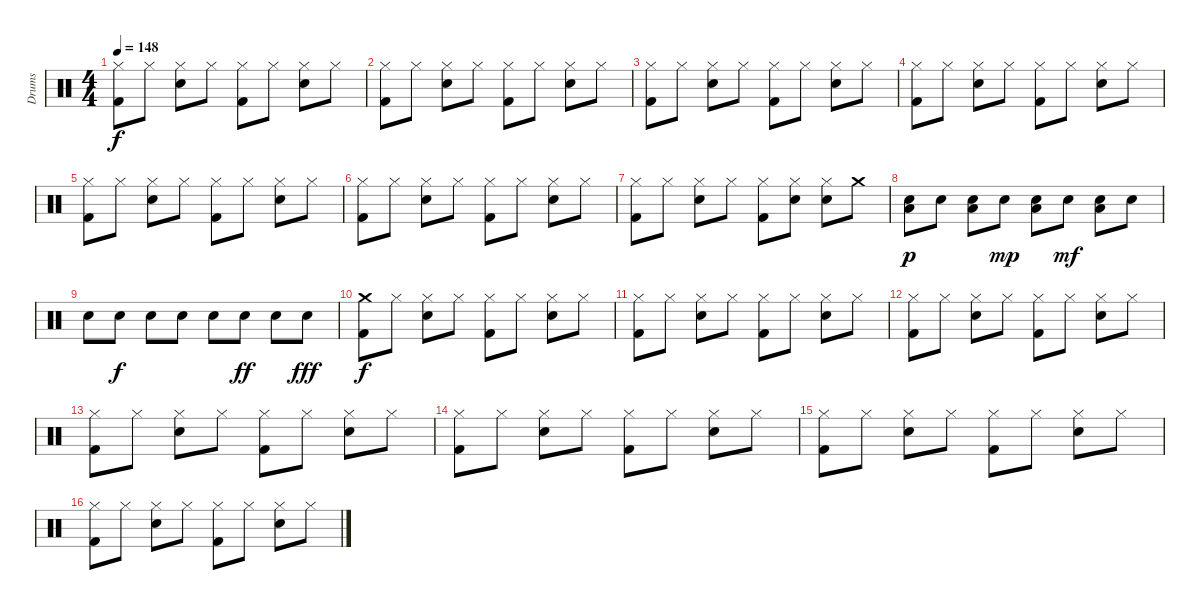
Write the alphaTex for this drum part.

\track ("Drums" "Drums") {instrument percussion}
\staff {score}
\articulation defaults
\ts (4 4)
\tempo 148
\clef neutral
\ks c
("Kick (hit) 2" "Hi-Hat (closed)").8{dy f} "Hi-Hat (closed)".8 ("Snare (hit) 2" "Hi-Hat (closed)").8 "Hi-Hat (closed)".8 ("Kick (hit) 2" "Hi-Hat (closed)").8 "Hi-Hat (closed)".8 ("Snare (hit) 2" "Hi-Hat (closed)").8 "Hi-Hat (closed)".8 |
("Kick (hit) 2" "Hi-Hat (closed)").8 "Hi-Hat (closed)".8 ("Snare (hit) 2" "Hi-Hat (closed)").8 "Hi-Hat (closed)".8 ("Kick (hit) 2" "Hi-Hat (closed)").8 "Hi-Hat (closed)".8 ("Snare (hit) 2" "Hi-Hat (closed)").8 "Hi-Hat (closed)".8 |
("Kick (hit) 2" "Hi-Hat (closed)").8 "Hi-Hat (closed)".8 ("Snare (hit) 2" "Hi-Hat (closed)").8 "Hi-Hat (closed)".8 ("Kick (hit) 2" "Hi-Hat (closed)").8 "Hi-Hat (closed)".8 ("Snare (hit) 2" "Hi-Hat (closed)").8 "Hi-Hat (closed)".8 |
("Kick (hit) 2" "Hi-Hat (closed)").8 "Hi-Hat (closed)".8 ("Snare (hit) 2" "Hi-Hat (closed)").8 "Hi-Hat (closed)".8 ("Kick (hit) 2" "Hi-Hat (closed)").8 "Hi-Hat (closed)".8 ("Snare (hit) 2" "Hi-Hat (closed)").8 "Hi-Hat (closed)".8 |
("Kick (hit) 2" "Hi-Hat (closed)").8 "Hi-Hat (closed)".8 ("Snare (hit) 2" "Hi-Hat (closed)").8 "Hi-Hat (closed)".8 ("Kick (hit) 2" "Hi-Hat (closed)").8 "Hi-Hat (closed)".8 ("Snare (hit) 2" "Hi-Hat (closed)").8 "Hi-Hat (closed)".8 |
("Kick (hit) 2" "Hi-Hat (closed)").8 "Hi-Hat (closed)".8 ("Snare (hit) 2" "Hi-Hat (closed)").8 "Hi-Hat (closed)".8 ("Kick (hit) 2" "Hi-Hat (closed)").8 "Hi-Hat (closed)".8 ("Snare (hit) 2" "Hi-Hat (closed)").8 "Hi-Hat (closed)".8 |
("Kick (hit) 2" "Hi-Hat (closed)").8 "Hi-Hat (closed)".8 ("Snare (hit) 2" "Hi-Hat (closed)").8 "Hi-Hat (closed)".8 ("Kick (hit) 2" "Hi-Hat (closed)").8 ("Snare (hit) 2" "Hi-Hat (closed)").8 ("Snare (hit) 2" "Hi-Hat (closed)").8 "Crash medium (hit)".8 |
("Snare (hit) 2" "Low Tom (hit)").8{dy p} "Snare (hit) 2".8 ("Snare (hit) 2" "Low Tom (hit)").8 "Snare (hit) 2".8{dy mp} ("Snare (hit) 2" "Low Tom (hit)").8 "Snare (hit) 2".8{dy mf} ("Snare (hit) 2" "Low Tom (hit)").8 "Snare (hit) 2".8 |
"Snare (hit) 2".8 "Snare (hit) 2".8{dy f} "Snare (hit) 2".8 "Snare (hit) 2".8 "Snare (hit) 2".8 "Snare (hit) 2".8{dy ff} "Snare (hit) 2".8 "Snare (hit) 2".8{dy fff} |
("Kick (hit) 2" "Crash medium (hit)").8{dy f} "Hi-Hat (closed)".8 ("Snare (hit) 2" "Hi-Hat (closed)").8 "Hi-Hat (closed)".8 ("Kick (hit) 2" "Hi-Hat (closed)").8 "Hi-Hat (closed)".8 ("Snare (hit) 2" "Hi-Hat (closed)").8 "Hi-Hat (closed)".8 |
("Kick (hit) 2" "Hi-Hat (closed)").8 "Hi-Hat (closed)".8 ("Snare (hit) 2" "Hi-Hat (closed)").8 "Hi-Hat (closed)".8 ("Kick (hit) 2" "Hi-Hat (closed)").8 "Hi-Hat (closed)".8 ("Snare (hit) 2" "Hi-Hat (closed)").8 "Hi-Hat (closed)".8 |
("Kick (hit) 2" "Hi-Hat (closed)").8 "Hi-Hat (closed)".8 ("Snare (hit) 2" "Hi-Hat (closed)").8 "Hi-Hat (closed)".8 ("Kick (hit) 2" "Hi-Hat (closed)").8 "Hi-Hat (closed)".8 ("Snare (hit) 2" "Hi-Hat (closed)").8 "Hi-Hat (closed)".8 |
("Kick (hit) 2" "Hi-Hat (closed)").8 "Hi-Hat (closed)".8 ("Snare (hit) 2" "Hi-Hat (closed)").8 "Hi-Hat (closed)".8 ("Kick (hit) 2" "Hi-Hat (closed)").8 "Hi-Hat (closed)".8 ("Snare (hit) 2" "Hi-Hat (closed)").8 "Hi-Hat (closed)".8 |
("Kick (hit) 2" "Hi-Hat (closed)").8 "Hi-Hat (closed)".8 ("Snare (hit) 2" "Hi-Hat (closed)").8 "Hi-Hat (closed)".8 ("Kick (hit) 2" "Hi-Hat (closed)").8 "Hi-Hat (closed)".8 ("Snare (hit) 2" "Hi-Hat (closed)").8 "Hi-Hat (closed)".8 |
("Kick (hit) 2" "Hi-Hat (closed)").8 "Hi-Hat (closed)".8 ("Snare (hit) 2" "Hi-Hat (closed)").8 "Hi-Hat (closed)".8 ("Kick (hit) 2" "Hi-Hat (closed)").8 "Hi-Hat (closed)".8 ("Snare (hit) 2" "Hi-Hat (closed)").8 "Hi-Hat (closed)".8 |
("Kick (hit) 2" "Hi-Hat (closed)").8 "Hi-Hat (closed)".8 ("Snare (hit) 2" "Hi-Hat (closed)").8 "Hi-Hat (closed)".8 ("Kick (hit) 2" "Hi-Hat (closed)").8 "Hi-Hat (closed)".8 ("Snare (hit) 2" "Hi-Hat (closed)").8 "Hi-Hat (closed)".8
